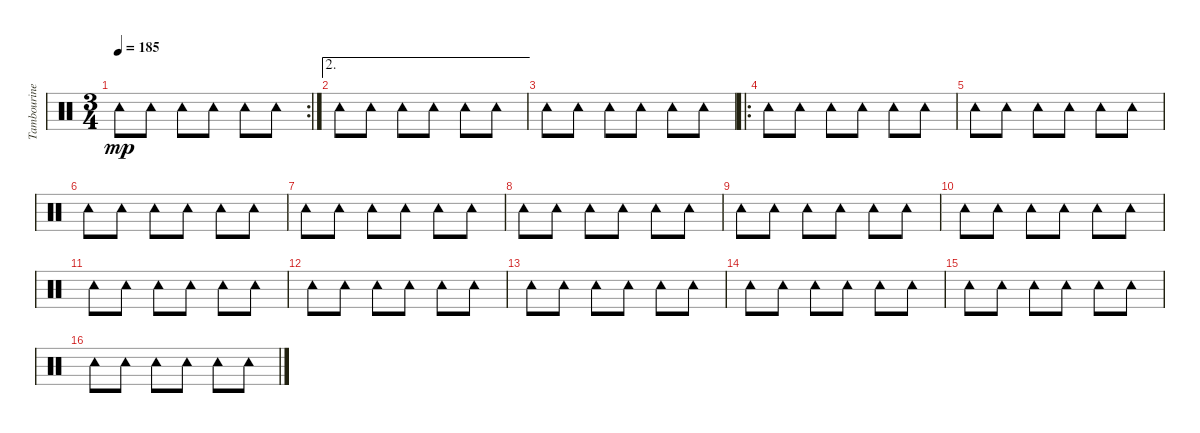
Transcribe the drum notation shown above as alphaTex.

\track ("Tambourine" "Tambourine") {instrument percussion}
\staff {score}
\articulation defaults
\rc 2
\ts (3 4)
\tempo 185
\clef neutral
\ks c "Tambourine (hit)".8{dy mp} "Tambourine (hit)".8 "Tambourine (hit)".8 "Tambourine (hit)".8 "Tambourine (hit)".8 "Tambourine (hit)".8
|
\ae 2 "Tambourine (hit)".8 "Tambourine (hit)".8 "Tambourine (hit)".8 "Tambourine (hit)".8 "Tambourine (hit)".8 "Tambourine (hit)".8
|
"Tambourine (hit)".8 "Tambourine (hit)".8 "Tambourine (hit)".8 "Tambourine (hit)".8 "Tambourine (hit)".8 "Tambourine (hit)".8 |
\ro "Tambourine (hit)".8 "Tambourine (hit)".8 "Tambourine (hit)".8 "Tambourine (hit)".8 "Tambourine (hit)".8 "Tambourine (hit)".8
|
"Tambourine (hit)".8 "Tambourine (hit)".8 "Tambourine (hit)".8 "Tambourine (hit)".8 "Tambourine (hit)".8 "Tambourine (hit)".8 |
"Tambourine (hit)".8 "Tambourine (hit)".8 "Tambourine (hit)".8 "Tambourine (hit)".8 "Tambourine (hit)".8 "Tambourine (hit)".8 |
"Tambourine (hit)".8 "Tambourine (hit)".8 "Tambourine (hit)".8 "Tambourine (hit)".8 "Tambourine (hit)".8 "Tambourine (hit)".8 |
"Tambourine (hit)".8 "Tambourine (hit)".8 "Tambourine (hit)".8 "Tambourine (hit)".8 "Tambourine (hit)".8 "Tambourine (hit)".8 |
"Tambourine (hit)".8 "Tambourine (hit)".8 "Tambourine (hit)".8 "Tambourine (hit)".8 "Tambourine (hit)".8 "Tambourine (hit)".8 |
"Tambourine (hit)".8 "Tambourine (hit)".8 "Tambourine (hit)".8 "Tambourine (hit)".8 "Tambourine (hit)".8 "Tambourine (hit)".8 |
"Tambourine (hit)".8 "Tambourine (hit)".8 "Tambourine (hit)".8 "Tambourine (hit)".8 "Tambourine (hit)".8 "Tambourine (hit)".8 |
"Tambourine (hit)".8 "Tambourine (hit)".8 "Tambourine (hit)".8 "Tambourine (hit)".8 "Tambourine (hit)".8 "Tambourine (hit)".8 |
"Tambourine (hit)".8 "Tambourine (hit)".8 "Tambourine (hit)".8 "Tambourine (hit)".8 "Tambourine (hit)".8 "Tambourine (hit)".8 |
"Tambourine (hit)".8 "Tambourine (hit)".8 "Tambourine (hit)".8 "Tambourine (hit)".8 "Tambourine (hit)".8 "Tambourine (hit)".8 |
"Tambourine (hit)".8 "Tambourine (hit)".8 "Tambourine (hit)".8 "Tambourine (hit)".8 "Tambourine (hit)".8 "Tambourine (hit)".8 |
"Tambourine (hit)".8 "Tambourine (hit)".8 "Tambourine (hit)".8 "Tambourine (hit)".8 "Tambourine (hit)".8 "Tambourine (hit)".8
